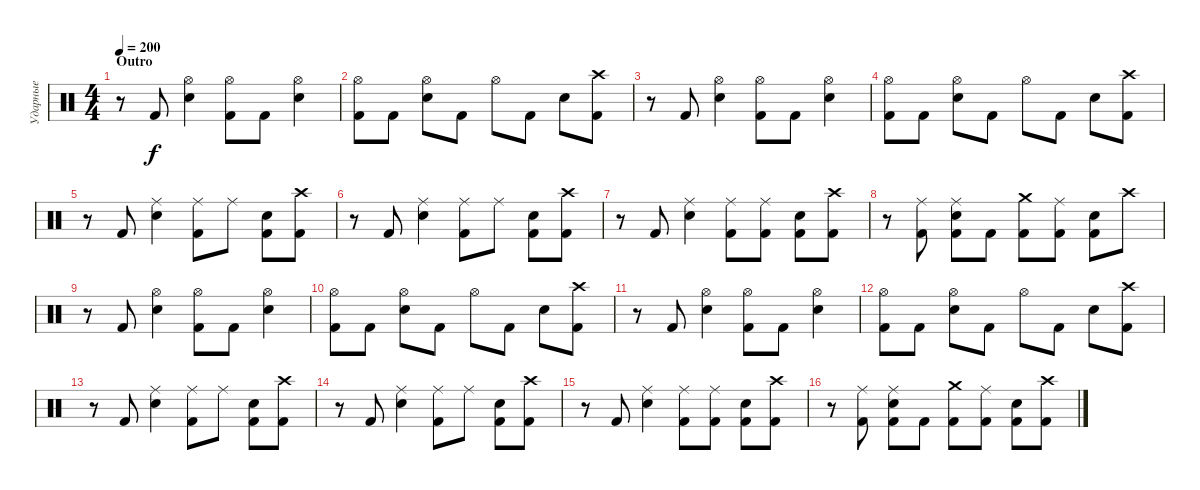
\track ("Ударные" "Ударные") {instrument percussion}
\staff {score}
\articulation defaults
\ts (4 4)
\section ("" "Outro")
\tempo 200
\clef neutral
\ks c
r.8{dy f} "Kick (hit) 2".8 ("Hi-Hat (open)" "Electric Snare (hit)").4 ("Hi-Hat (open)" "Kick (hit) 2").8 "Kick (hit) 2".8 ("Hi-Hat (open)" "Electric Snare (hit)").4 |
("Hi-Hat (open)" "Kick (hit) 2").8 "Kick (hit) 2".8 ("Hi-Hat (open)" "Electric Snare (hit)").8 "Kick (hit) 2".8 "Hi-Hat (open)".8 "Kick (hit) 2".8 "Electric Snare (hit)".8 ("Crash high (hit)" "Kick (hit) 2").8 |
r.8 "Kick (hit) 2".8 ("Hi-Hat (open)" "Electric Snare (hit)").4 ("Hi-Hat (open)" "Kick (hit) 2").8 "Kick (hit) 2".8 ("Hi-Hat (open)" "Electric Snare (hit)").4 |
("Hi-Hat (open)" "Kick (hit) 2").8 "Kick (hit) 2".8 ("Hi-Hat (open)" "Electric Snare (hit)").8 "Kick (hit) 2".8 "Hi-Hat (open)".8 "Kick (hit) 2".8 "Electric Snare (hit)".8 ("Crash high (hit)" "Kick (hit) 2").8 |
r.8 "Kick (hit) 2".8 ("Ride (middle)" "Electric Snare (hit)").4 ("Ride (middle)" "Kick (hit) 2").8 "Ride (middle)".8 ("Electric Snare (hit)" "Kick (hit) 2").8 ("Crash high (hit)" "Kick (hit) 2").8 |
r.8 "Kick (hit) 2".8 ("Ride (middle)" "Electric Snare (hit)").4 ("Ride (middle)" "Kick (hit) 2").8 "Ride (middle)".8 ("Electric Snare (hit)" "Kick (hit) 2").8 ("Crash high (hit)" "Kick (hit) 2").8 |
r.8 "Kick (hit) 2".8 ("Ride (middle)" "Electric Snare (hit)").4 ("Ride (middle)" "Kick (hit) 2").8 ("Ride (middle)" "Kick (hit) 2").8 ("Electric Snare (hit)" "Kick (hit) 2").8 ("Crash high (hit)" "Kick (hit) 2").8 |
r.8 ("Ride (middle)" "Kick (hit) 2").8 ("Ride (middle)" "Electric Snare (hit)" "Kick (hit) 2").8 "Kick (hit) 2".8 ("Crash medium (hit)" "Kick (hit) 2").8 ("Ride (middle)" "Kick (hit) 2").8 ("Electric Snare (hit)" "Kick (hit) 2").8 "Crash high (hit)".8 |
r.8 "Kick (hit) 2".8 ("Hi-Hat (open)" "Electric Snare (hit)").4 ("Hi-Hat (open)" "Kick (hit) 2").8 "Kick (hit) 2".8 ("Hi-Hat (open)" "Electric Snare (hit)").4 |
("Hi-Hat (open)" "Kick (hit) 2").8 "Kick (hit) 2".8 ("Hi-Hat (open)" "Electric Snare (hit)").8 "Kick (hit) 2".8 "Hi-Hat (open)".8 "Kick (hit) 2".8 "Electric Snare (hit)".8 ("Crash high (hit)" "Kick (hit) 2").8 |
r.8 "Kick (hit) 2".8 ("Hi-Hat (open)" "Electric Snare (hit)").4 ("Hi-Hat (open)" "Kick (hit) 2").8 "Kick (hit) 2".8 ("Hi-Hat (open)" "Electric Snare (hit)").4 |
("Hi-Hat (open)" "Kick (hit) 2").8 "Kick (hit) 2".8 ("Hi-Hat (open)" "Electric Snare (hit)").8 "Kick (hit) 2".8 "Hi-Hat (open)".8 "Kick (hit) 2".8 "Electric Snare (hit)".8 ("Crash high (hit)" "Kick (hit) 2").8 |
r.8 "Kick (hit) 2".8 ("Ride (middle)" "Electric Snare (hit)").4 ("Ride (middle)" "Kick (hit) 2").8 "Ride (middle)".8 ("Electric Snare (hit)" "Kick (hit) 2").8 ("Crash high (hit)" "Kick (hit) 2").8 |
r.8 "Kick (hit) 2".8 ("Ride (middle)" "Electric Snare (hit)").4 ("Ride (middle)" "Kick (hit) 2").8 "Ride (middle)".8 ("Electric Snare (hit)" "Kick (hit) 2").8 ("Crash high (hit)" "Kick (hit) 2").8 |
r.8 "Kick (hit) 2".8 ("Ride (middle)" "Electric Snare (hit)").4 ("Ride (middle)" "Kick (hit) 2").8 ("Ride (middle)" "Kick (hit) 2").8 ("Electric Snare (hit)" "Kick (hit) 2").8 ("Crash high (hit)" "Kick (hit) 2").8 |
r.8 ("Ride (middle)" "Kick (hit) 2").8 ("Ride (middle)" "Electric Snare (hit)" "Kick (hit) 2").8 "Kick (hit) 2".8 ("Crash medium (hit)" "Kick (hit) 2").8 ("Ride (middle)" "Kick (hit) 2").8 ("Electric Snare (hit)" "Kick (hit) 2").8 ("Crash high (hit)" "Kick (hit) 2").8
